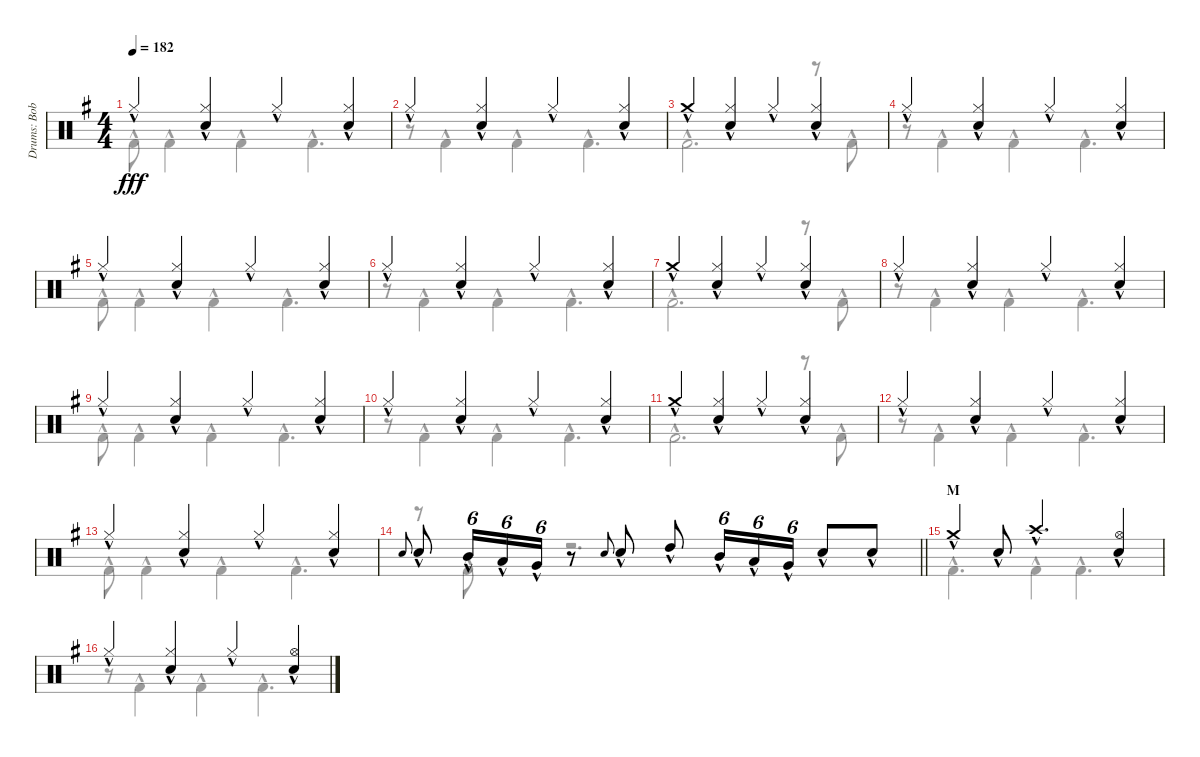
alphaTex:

\track ("Drums: Bobby" "Drums: Bob") {instrument percussion}
\staff {score}
\articulation defaults
\voice
\ts (4 4)
\tempo 182
\clef neutral
\ks g "Hi-Hat (closed)"{hac}.4{dy fff}
("Hi-Hat (closed)"{hac} "Snare (hit) 2"{hac}).4 "Hi-Hat (closed)"{hac}.4 ("Hi-Hat (closed)"{hac} "Snare (hit) 2"{hac}).4 |
"Hi-Hat (closed)"{hac}.4 ("Hi-Hat (closed)"{hac} "Snare (hit) 2"{hac}).4 "Hi-Hat (closed)"{hac}.4 ("Hi-Hat (closed)"{hac} "Snare (hit) 2"{hac}).4 |
"Crash medium (hit)"{hac}.4 ("Hi-Hat (closed)"{hac} "Snare (hit) 2"{hac}).4 "Hi-Hat (closed)"{hac}.4 ("Hi-Hat (closed)"{hac} "Snare (hit) 2"{hac}).4 |
"Hi-Hat (closed)"{hac}.4 ("Hi-Hat (closed)"{hac} "Snare (hit) 2"{hac}).4 "Hi-Hat (closed)"{hac}.4 ("Hi-Hat (closed)"{hac} "Snare (hit) 2"{hac}).4 |
"Hi-Hat (closed)"{hac}.4 ("Hi-Hat (closed)"{hac} "Snare (hit) 2"{hac}).4 "Hi-Hat (closed)"{hac}.4 ("Hi-Hat (closed)"{hac} "Snare (hit) 2"{hac}).4 |
"Hi-Hat (closed)"{hac}.4 ("Hi-Hat (closed)"{hac} "Snare (hit) 2"{hac}).4 "Hi-Hat (closed)"{hac}.4 ("Hi-Hat (closed)"{hac} "Snare (hit) 2"{hac}).4 |
"Crash medium (hit)"{hac}.4 ("Hi-Hat (closed)"{hac} "Snare (hit) 2"{hac}).4 "Hi-Hat (closed)"{hac}.4 ("Hi-Hat (closed)"{hac} "Snare (hit) 2"{hac}).4 |
"Hi-Hat (closed)"{hac}.4 ("Hi-Hat (closed)"{hac} "Snare (hit) 2"{hac}).4 "Hi-Hat (closed)"{hac}.4 ("Hi-Hat (closed)"{hac} "Snare (hit) 2"{hac}).4 |
"Hi-Hat (closed)"{hac}.4 ("Hi-Hat (closed)"{hac} "Snare (hit) 2"{hac}).4 "Hi-Hat (closed)"{hac}.4 ("Hi-Hat (closed)"{hac} "Snare (hit) 2"{hac}).4 |
"Hi-Hat (closed)"{hac}.4 ("Hi-Hat (closed)"{hac} "Snare (hit) 2"{hac}).4 "Hi-Hat (closed)"{hac}.4 ("Hi-Hat (closed)"{hac} "Snare (hit) 2"{hac}).4 |
"Crash medium (hit)"{hac}.4 ("Hi-Hat (closed)"{hac} "Snare (hit) 2"{hac}).4 "Hi-Hat (closed)"{hac}.4 ("Hi-Hat (closed)"{hac} "Snare (hit) 2"{hac}).4 |
"Hi-Hat (closed)"{hac}.4 ("Hi-Hat (closed)"{hac} "Snare (hit) 2"{hac}).4 "Hi-Hat (closed)"{hac}.4 ("Hi-Hat (closed)"{hac} "Snare (hit) 2"{hac}).4 |
"Hi-Hat (closed)"{hac}.4 ("Hi-Hat (closed)"{hac} "Snare (hit) 2"{hac}).4 "Hi-Hat (closed)"{hac}.4 ("Hi-Hat (closed)"{hac} "Snare (hit) 2"{hac}).4 |
\barLineRight lightlight "Electric Snare (hit)".8{gr onbeat} "Snare (hit) 2"{hac}.8 "Mid Tom (hit)"{hac}.16{tu (6 4)} "Low Tom (hit)"{hac}.16{tu (6 4)} "Very Low Tom (hit)"{hac}.16{tu (6 4)}
r.8 "Electric Snare (hit)".8{gr onbeat} "Snare (hit) 2"{hac}.8 "High Tom (hit)"{hac}.8 "Mid Tom (hit)"{hac}.16{tu (6 4)} "Low Tom (hit)"{hac}.16{tu (6 4)} "Very Low Tom (hit)"{hac}.16{tu (6 4)} "Snare (hit) 2"{hac}.8 "Snare (hit) 2"{hac}.8 |
\section ("" "M")
"Crash medium (hit)"{hac}.4 "Snare (hit) 2"{hac}.8 "Crash high (hit)"{hac}.4{d} ("Hi-Hat (open)"{hac} "Snare (hit) 2"{hac}).4 |
"Hi-Hat (closed)"{hac}.4 ("Hi-Hat (closed)"{hac} "Snare (hit) 2"{hac}).4 "Hi-Hat (closed)"{hac}.4 ("Hi-Hat (open)"{hac} "Snare (hit) 2"{hac}).4
\voice
\clef neutral
\ottava regular
\simile none
\ks g "Kick (hit) 2"{hac}.8{dy fff} "Kick (hit) 2"{hac}.4 "Kick (hit) 2"{hac}.4 "Kick (hit) 2"{hac}.4{d}
|
r.8 "Kick (hit) 2"{hac}.4 "Kick (hit) 2"{hac}.4 "Kick (hit) 2"{hac}.4{d} |
"Kick (hit) 2"{hac}.2{d} r.8 "Kick (hit) 2"{hac}.8 |
r.8 "Kick (hit) 2"{hac}.4 "Kick (hit) 2"{hac}.4 "Kick (hit) 2"{hac}.4{d} |
"Kick (hit) 2"{hac}.8 "Kick (hit) 2"{hac}.4 "Kick (hit) 2"{hac}.4 "Kick (hit) 2"{hac}.4{d} |
r.8 "Kick (hit) 2"{hac}.4 "Kick (hit) 2"{hac}.4 "Kick (hit) 2"{hac}.4{d} |
"Kick (hit) 2"{hac}.2{d} r.8 "Kick (hit) 2"{hac}.8 |
r.8 "Kick (hit) 2"{hac}.4 "Kick (hit) 2"{hac}.4 "Kick (hit) 2"{hac}.4{d} |
"Kick (hit) 2"{hac}.8 "Kick (hit) 2"{hac}.4 "Kick (hit) 2"{hac}.4 "Kick (hit) 2"{hac}.4{d} |
r.8 "Kick (hit) 2"{hac}.4 "Kick (hit) 2"{hac}.4 "Kick (hit) 2"{hac}.4{d} |
"Kick (hit) 2"{hac}.2{d} r.8 "Kick (hit) 2"{hac}.8 |
r.8 "Kick (hit) 2"{hac}.4 "Kick (hit) 2"{hac}.4 "Kick (hit) 2"{hac}.4{d} |
"Kick (hit) 2"{hac}.8 "Kick (hit) 2"{hac}.4 "Kick (hit) 2"{hac}.4 "Kick (hit) 2"{hac}.4{d} |
\barLineRight lightlight
r.8 "Kick (hit) 2"{hac}.8 r.2{d} |
"Kick (hit) 2"{hac}.4{d} "Kick (hit) 2"{hac}.4 "Kick (hit) 2"{hac}.4{d} |
r.8 "Kick (hit) 2"{hac}.4 "Kick (hit) 2"{hac}.4 "Kick (hit) 2"{hac}.4{d}
